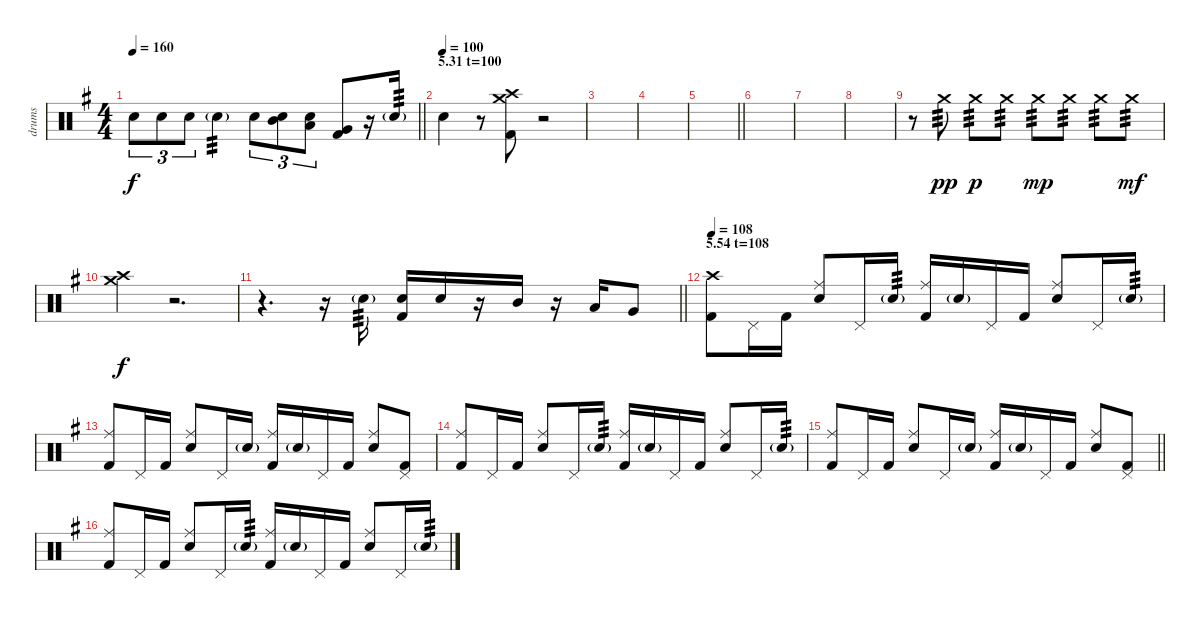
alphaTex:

\track ("drums" "drums") {instrument percussion}
\staff {score}
\articulation defaults
\ts (4 4)
\tempo 160
\clef neutral
\barLineRight lightlight
\ks g "Electric Snare (hit)".8{tu (3 2) dy f} "Electric Snare (hit)".8{tu (3 2)} "Electric Snare (hit)".8{tu (3 2)} "Electric Snare (hit)"{g}.4{tp 3} "Electric Snare (hit)".8{tu (3 2)}
("Mid Tom (hit)" "Electric Snare (hit)").8{tu (3 2)} ("Low Tom (hit)" "Electric Snare (hit)").8{tu (3 2)} ("Very Low Tom (hit)" "Kick (hit) 2").8 r.16 "Electric Snare (hit)"{g}.16{tp 3} |
\section ("" "5.31 t=100")
\tempo (100)
"Electric Snare (hit)".4 r.8 ("Crash high (hit)" "Crash medium (hit)" "Kick (hit) 2").8 r.2 |
|
|
\barLineRight lightlight
|
|
|
|
r.8 "Crash medium (hit)".8{tp 3 dy pp} "Crash medium (hit)".8{tp 3 dy p} "Crash medium (hit)".8{tp 3} "Crash medium (hit)".8{tp 3 dy mp} "Crash medium (hit)".8{tp 3} "Crash medium (hit)".8{tp 3} "Crash medium (hit)".8{tp 3 dy mf} |
("Crash high (hit)" "Crash medium (hit)").4{dy f} r.2{d} |
\barLineRight lightlight
r.4{d} r.16 "Electric Snare (hit)"{g}.16{tp 3} ("Electric Snare (hit)" "Kick (hit) 2").16 "Electric Snare (hit)".16 r.16 "Mid Tom (hit)".16 r.16 "Low Tom (hit)".16 "Very Low Tom (hit)".8 |
\section ("" "5.54 t=108")
\tempo 108
("Crash high (hit)" "Kick (hit) 2").8 "Pedal Hi-Hat (hit)".16 "Kick (hit) 2".16 ("Ride (middle)" "Electric Snare (hit)").8 "Pedal Hi-Hat (hit)".16 "Electric Snare (hit)"{g}.16{tp 3} ("Ride (middle)" "Kick (hit) 2").16 "Electric Snare (hit)"{g}.16 "Pedal Hi-Hat (hit)".16 "Kick (hit) 2".16 ("Ride (middle)" "Electric Snare (hit)").8 "Pedal Hi-Hat (hit)".16 "Electric Snare (hit)"{g}.16{tp 3} |
("Ride (middle)" "Kick (hit) 2").8 "Pedal Hi-Hat (hit)".16 "Kick (hit) 2".16 ("Ride (middle)" "Electric Snare (hit)").8 "Pedal Hi-Hat (hit)".16 "Electric Snare (hit)"{g}.16 ("Ride (middle)" "Kick (hit) 2").16 "Electric Snare (hit)"{g}.16 "Pedal Hi-Hat (hit)".16 "Kick (hit) 2".16 ("Ride (middle)" "Electric Snare (hit)").8 ("Pedal Hi-Hat (hit)" "Kick (hit) 2").8 |
("Ride (middle)" "Kick (hit) 2").8 "Pedal Hi-Hat (hit)".16 "Kick (hit) 2".16 ("Ride (middle)" "Electric Snare (hit)").8 "Pedal Hi-Hat (hit)".16 "Electric Snare (hit)"{g}.16{tp 3} ("Ride (middle)" "Kick (hit) 2").16 "Electric Snare (hit)"{g}.16 "Pedal Hi-Hat (hit)".16 "Kick (hit) 2".16 ("Ride (middle)" "Electric Snare (hit)").8 "Pedal Hi-Hat (hit)".16 "Electric Snare (hit)"{g}.16{tp 3} |
\barLineRight lightlight
("Ride (middle)" "Kick (hit) 2").8 "Pedal Hi-Hat (hit)".16 "Kick (hit) 2".16 ("Ride (middle)" "Electric Snare (hit)").8 "Pedal Hi-Hat (hit)".16 "Electric Snare (hit)"{g}.16 ("Ride (middle)" "Kick (hit) 2").16 "Electric Snare (hit)"{g}.16 "Pedal Hi-Hat (hit)".16 "Kick (hit) 2".16 ("Ride (middle)" "Electric Snare (hit)").8 ("Pedal Hi-Hat (hit)" "Kick (hit) 2").8 |
("Ride (middle)" "Kick (hit) 2").8 "Pedal Hi-Hat (hit)".16 "Kick (hit) 2".16 ("Ride (middle)" "Electric Snare (hit)").8 "Pedal Hi-Hat (hit)".16 "Electric Snare (hit)"{g}.16{tp 3} ("Ride (middle)" "Kick (hit) 2").16 "Electric Snare (hit)"{g}.16 "Pedal Hi-Hat (hit)".16 "Kick (hit) 2".16 ("Ride (middle)" "Electric Snare (hit)").8 "Pedal Hi-Hat (hit)".16 "Electric Snare (hit)"{g}.16{tp 3}
